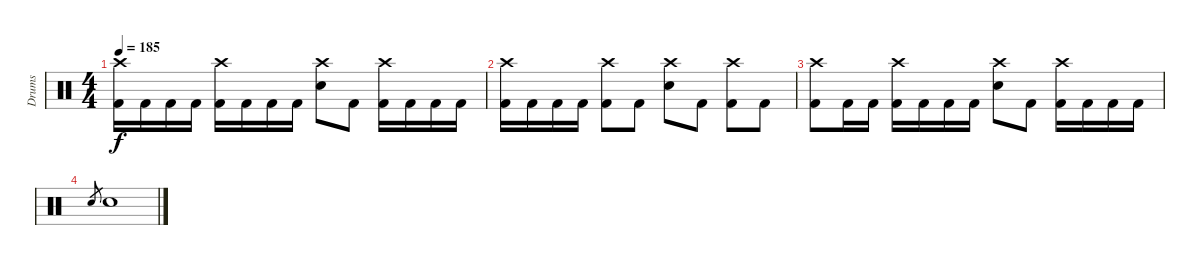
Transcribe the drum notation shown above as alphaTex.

\track ("Drums" "Drums") {instrument percussion}
\staff {score}
\articulation defaults
\ts (4 4)
\tempo 185
\clef neutral
\ks c
("Crash high (hit)" "Kick (hit) 2").16{dy f} "Kick (hit) 2".16 "Kick (hit) 2".16 "Kick (hit) 2".16 ("Crash high (hit)" "Kick (hit) 2").16 "Kick (hit) 2".16 "Kick (hit) 2".16 "Kick (hit) 2".16 ("Crash high (hit)" "Snare (hit) 2").8 "Kick (hit) 2".8 ("Crash high (hit)" "Kick (hit) 2").16 "Kick (hit) 2".16 "Kick (hit) 2".16 "Kick (hit) 2".16 |
("Crash high (hit)" "Kick (hit) 2").16 "Kick (hit) 2".16 "Kick (hit) 2".16 "Kick (hit) 2".16 ("Crash high (hit)" "Kick (hit) 2").8 "Kick (hit) 2".8 ("Crash high (hit)" "Snare (hit) 2").8 "Kick (hit) 2".8 ("Crash high (hit)" "Kick (hit) 2").8 "Kick (hit) 2".8 |
("Crash high (hit)" "Kick (hit) 2").8 "Kick (hit) 2".16 "Kick (hit) 2".16 ("Crash high (hit)" "Kick (hit) 2").16 "Kick (hit) 2".16 "Kick (hit) 2".16 "Kick (hit) 2".16 ("Crash high (hit)" "Snare (hit) 2").8 "Kick (hit) 2".8 ("Crash high (hit)" "Kick (hit) 2").16 "Kick (hit) 2".16 "Kick (hit) 2".16 "Kick (hit) 2".16 |
"Snare (hit) 2".8{gr} "Snare (hit) 2".1
